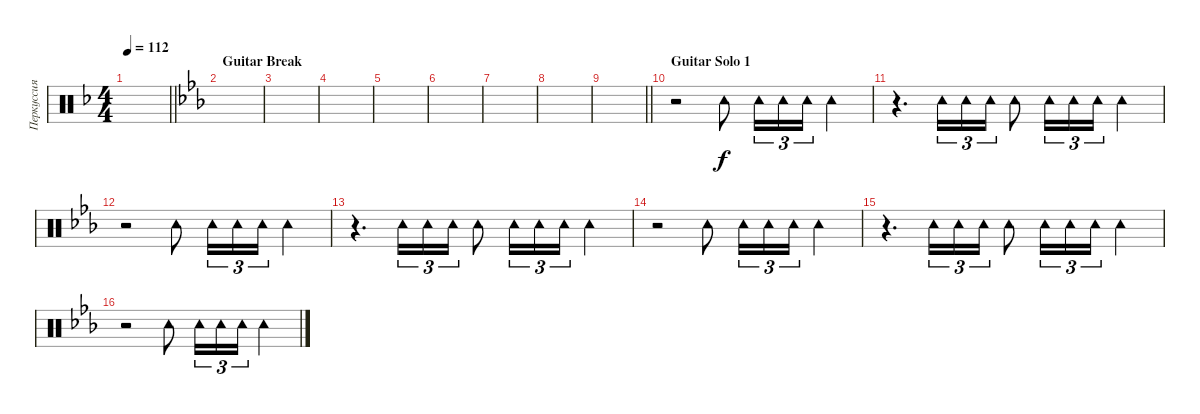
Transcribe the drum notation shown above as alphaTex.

\track ("Перкуссия" "Перкуссия") {instrument percussion}
\staff {score}
\articulation defaults
\ts (4 4)
\tempo 112
\clef neutral
\barLineRight lightlight
\ks dminor
|
\section ("" "Guitar Break")
\ks cminor
|
|
|
|
|
|
|
\barLineRight lightlight
|
\section ("" "Guitar Solo 1")
r.2 "Tambourine (hit)".8 "Tambourine (hit)".16{tu (3 2)} "Tambourine (hit)".16{tu (3 2)} "Tambourine (hit)".16{tu (3 2)} "Tambourine (hit)".4 |
r.4{d} "Tambourine (hit)".16{tu (3 2)} "Tambourine (hit)".16{tu (3 2)} "Tambourine (hit)".16{tu (3 2)} "Tambourine (hit)".8 "Tambourine (hit)".16{tu (3 2)} "Tambourine (hit)".16{tu (3 2)} "Tambourine (hit)".16{tu (3 2)} "Tambourine (hit)".4 |
r.2 "Tambourine (hit)".8 "Tambourine (hit)".16{tu (3 2)} "Tambourine (hit)".16{tu (3 2)} "Tambourine (hit)".16{tu (3 2)} "Tambourine (hit)".4 |
r.4{d} "Tambourine (hit)".16{tu (3 2)} "Tambourine (hit)".16{tu (3 2)} "Tambourine (hit)".16{tu (3 2)} "Tambourine (hit)".8 "Tambourine (hit)".16{tu (3 2)} "Tambourine (hit)".16{tu (3 2)} "Tambourine (hit)".16{tu (3 2)} "Tambourine (hit)".4 |
r.2 "Tambourine (hit)".8 "Tambourine (hit)".16{tu (3 2)} "Tambourine (hit)".16{tu (3 2)} "Tambourine (hit)".16{tu (3 2)} "Tambourine (hit)".4 |
r.4{d} "Tambourine (hit)".16{tu (3 2)} "Tambourine (hit)".16{tu (3 2)} "Tambourine (hit)".16{tu (3 2)} "Tambourine (hit)".8 "Tambourine (hit)".16{tu (3 2)} "Tambourine (hit)".16{tu (3 2)} "Tambourine (hit)".16{tu (3 2)} "Tambourine (hit)".4 |
r.2 "Tambourine (hit)".8 "Tambourine (hit)".16{tu (3 2)} "Tambourine (hit)".16{tu (3 2)} "Tambourine (hit)".16{tu (3 2)} "Tambourine (hit)".4
